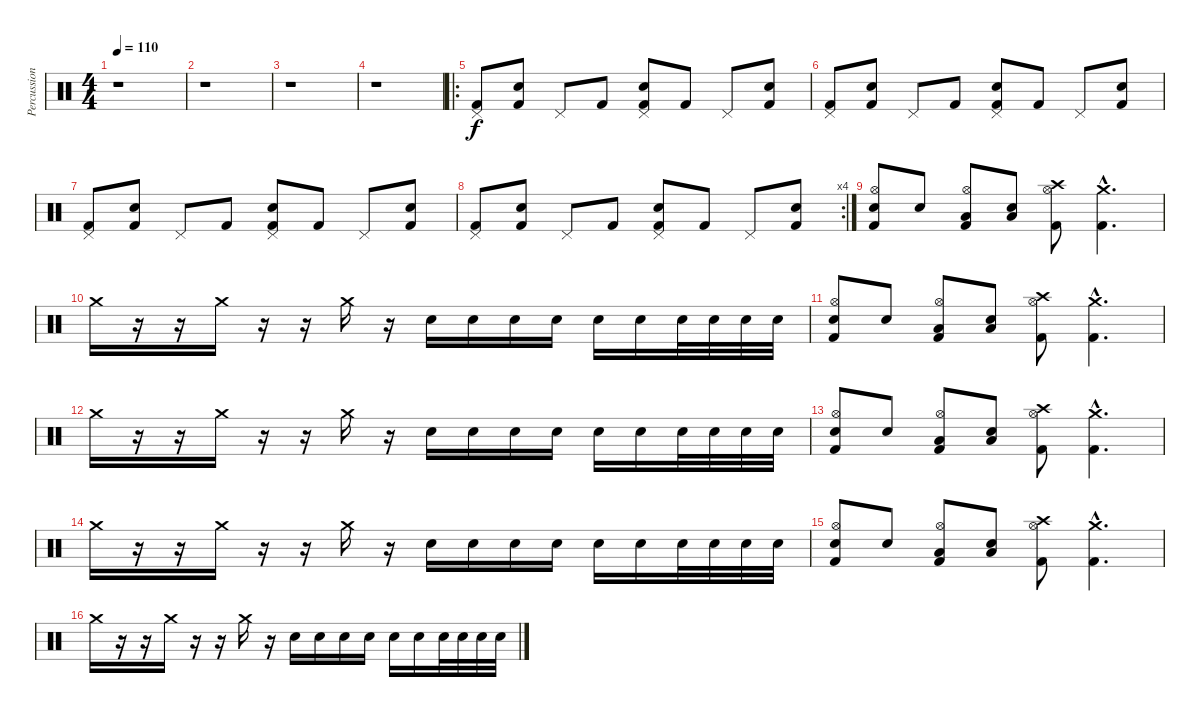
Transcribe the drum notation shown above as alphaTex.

\track ("Percussion" "Percussion") {instrument percussion}
\staff {score}
\articulation defaults
\ts (4 4)
\tempo 110
\clef neutral
\ks c
r.1{dy f} |
r.1 |
r.1 |
r.1 |
\ro
("Pedal Hi-Hat (hit)" "Kick (hit) 2").8 ("Electric Snare (hit)" "Kick (hit) 2").8 "Pedal Hi-Hat (hit)".8 "Kick (hit) 2".8 ("Pedal Hi-Hat (hit)" "Electric Snare (hit)" "Kick (hit) 2").8 "Kick (hit) 2".8 "Pedal Hi-Hat (hit)".8 ("Electric Snare (hit)" "Kick (hit) 2").8 |
("Pedal Hi-Hat (hit)" "Kick (hit) 2").8 ("Electric Snare (hit)" "Kick (hit) 2").8 "Pedal Hi-Hat (hit)".8 "Kick (hit) 2".8 ("Pedal Hi-Hat (hit)" "Electric Snare (hit)" "Kick (hit) 2").8 "Kick (hit) 2".8 "Pedal Hi-Hat (hit)".8 ("Electric Snare (hit)" "Kick (hit) 2").8 |
("Pedal Hi-Hat (hit)" "Kick (hit) 2").8 ("Electric Snare (hit)" "Kick (hit) 2").8 "Pedal Hi-Hat (hit)".8 "Kick (hit) 2".8 ("Pedal Hi-Hat (hit)" "Electric Snare (hit)" "Kick (hit) 2").8 "Kick (hit) 2".8 "Pedal Hi-Hat (hit)".8 ("Electric Snare (hit)" "Kick (hit) 2").8 |
\rc 4
("Pedal Hi-Hat (hit)" "Kick (hit) 2").8 ("Electric Snare (hit)" "Kick (hit) 2").8 "Pedal Hi-Hat (hit)".8 "Kick (hit) 2".8 ("Pedal Hi-Hat (hit)" "Electric Snare (hit)" "Kick (hit) 2").8 "Kick (hit) 2".8 "Pedal Hi-Hat (hit)".8 ("Electric Snare (hit)" "Kick (hit) 2").8 |
("Hi-Hat (open)" "Snare (hit) 2" "Kick (hit) 2").8 "Snare (hit) 2".8 ("Hi-Hat (open)" "Low Tom (hit)" "Kick (hit) 2").8 ("Low Tom (hit)" "Snare (hit) 2").8 ("Hi-Hat (open)" "Crash high (hit)" "Kick (hit) 2").8 ("Crash medium (hit)"{hac} "Kick (hit) 2"{hac}).4{d} |
"Crash medium (hit)".16 r.16 r.16 "Crash medium (hit)".16 r.16 r.16 "Crash medium (hit)".16 r.16 "Electric Snare (hit)".16 "Electric Snare (hit)".16 "Electric Snare (hit)".16 "Electric Snare (hit)".16 "Electric Snare (hit)".16 "Electric Snare (hit)".16 "Electric Snare (hit)".32 "Electric Snare (hit)".32 "Electric Snare (hit)".32 "Electric Snare (hit)".32 |
("Hi-Hat (open)" "Snare (hit) 2" "Kick (hit) 2").8 "Snare (hit) 2".8 ("Hi-Hat (open)" "Low Tom (hit)" "Kick (hit) 2").8 ("Low Tom (hit)" "Snare (hit) 2").8 ("Hi-Hat (open)" "Crash high (hit)" "Kick (hit) 2").8 ("Crash medium (hit)"{hac} "Kick (hit) 2"{hac}).4{d} |
"Crash medium (hit)".16 r.16 r.16 "Crash medium (hit)".16 r.16 r.16 "Crash medium (hit)".16 r.16 "Electric Snare (hit)".16 "Electric Snare (hit)".16 "Electric Snare (hit)".16 "Electric Snare (hit)".16 "Electric Snare (hit)".16 "Electric Snare (hit)".16 "Electric Snare (hit)".32 "Electric Snare (hit)".32 "Electric Snare (hit)".32 "Electric Snare (hit)".32 |
("Hi-Hat (open)" "Snare (hit) 2" "Kick (hit) 2").8 "Snare (hit) 2".8 ("Hi-Hat (open)" "Low Tom (hit)" "Kick (hit) 2").8 ("Low Tom (hit)" "Snare (hit) 2").8 ("Hi-Hat (open)" "Crash high (hit)" "Kick (hit) 2").8 ("Crash medium (hit)"{hac} "Kick (hit) 2"{hac}).4{d} |
"Crash medium (hit)".16 r.16 r.16 "Crash medium (hit)".16 r.16 r.16 "Crash medium (hit)".16 r.16 "Electric Snare (hit)".16 "Electric Snare (hit)".16 "Electric Snare (hit)".16 "Electric Snare (hit)".16 "Electric Snare (hit)".16 "Electric Snare (hit)".16 "Electric Snare (hit)".32 "Electric Snare (hit)".32 "Electric Snare (hit)".32 "Electric Snare (hit)".32 |
("Hi-Hat (open)" "Snare (hit) 2" "Kick (hit) 2").8 "Snare (hit) 2".8 ("Hi-Hat (open)" "Low Tom (hit)" "Kick (hit) 2").8 ("Low Tom (hit)" "Snare (hit) 2").8 ("Hi-Hat (open)" "Crash high (hit)" "Kick (hit) 2").8 ("Crash medium (hit)"{hac} "Kick (hit) 2"{hac}).4{d} |
"Crash medium (hit)".16 r.16 r.16 "Crash medium (hit)".16 r.16 r.16 "Crash medium (hit)".16 r.16 "Electric Snare (hit)".16 "Electric Snare (hit)".16 "Electric Snare (hit)".16 "Electric Snare (hit)".16 "Electric Snare (hit)".16 "Electric Snare (hit)".16 "Electric Snare (hit)".32 "Electric Snare (hit)".32 "Electric Snare (hit)".32 "Electric Snare (hit)".32
